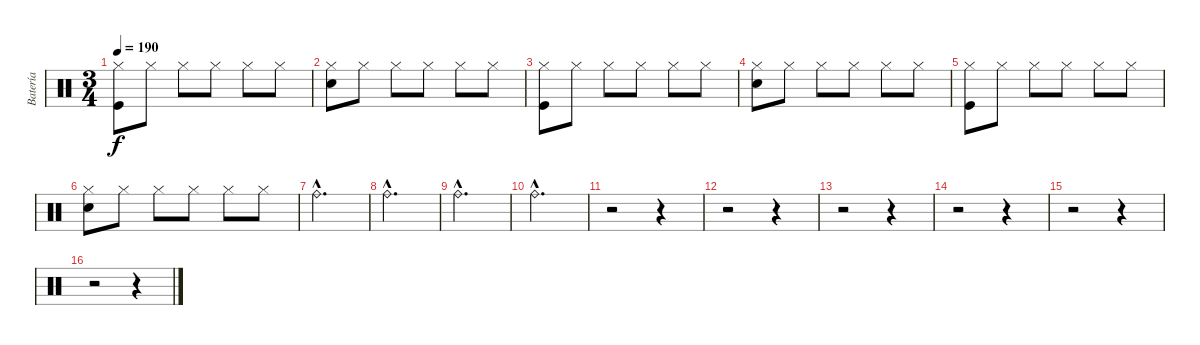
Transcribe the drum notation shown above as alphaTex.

\track ("Batería" "Batería") {instrument percussion}
\staff {score}
\articulation defaults
\ts (3 4)
\tempo 190
\clef neutral
\ks c
("Hi-Hat (closed)" "Kick (hit)").8{dy f} "Hi-Hat (closed)".8 "Hi-Hat (closed)".8 "Hi-Hat (closed)".8 "Hi-Hat (closed)".8 "Hi-Hat (closed)".8 |
("Hi-Hat (closed)" "Snare (hit) 2").8 "Hi-Hat (closed)".8 "Hi-Hat (closed)".8 "Hi-Hat (closed)".8 "Hi-Hat (closed)".8 "Hi-Hat (closed)".8 |
("Hi-Hat (closed)" "Kick (hit)").8 "Hi-Hat (closed)".8 "Hi-Hat (closed)".8 "Hi-Hat (closed)".8 "Hi-Hat (closed)".8 "Hi-Hat (closed)".8 |
("Hi-Hat (closed)" "Snare (hit) 2").8 "Hi-Hat (closed)".8 "Hi-Hat (closed)".8 "Hi-Hat (closed)".8 "Hi-Hat (closed)".8 "Hi-Hat (closed)".8 |
("Hi-Hat (closed)" "Kick (hit)").8 "Hi-Hat (closed)".8 "Hi-Hat (closed)".8 "Hi-Hat (closed)".8 "Hi-Hat (closed)".8 "Hi-Hat (closed)".8 |
("Hi-Hat (closed)" "Snare (hit) 2").8 "Hi-Hat (closed)".8 "Hi-Hat (closed)".8 "Hi-Hat (closed)".8 "Hi-Hat (closed)".8 "Hi-Hat (closed)".8 |
"Ride (bell)"{hac}.2{d} |
"Ride (bell)"{hac}.2{d} |
"Ride (bell)"{hac}.2{d} |
"Ride (bell)"{hac}.2{d} |
r.2 r.4 |
r.2 r.4 |
r.2 r.4 |
r.2 r.4 |
r.2 r.4 |
r.2 r.4
